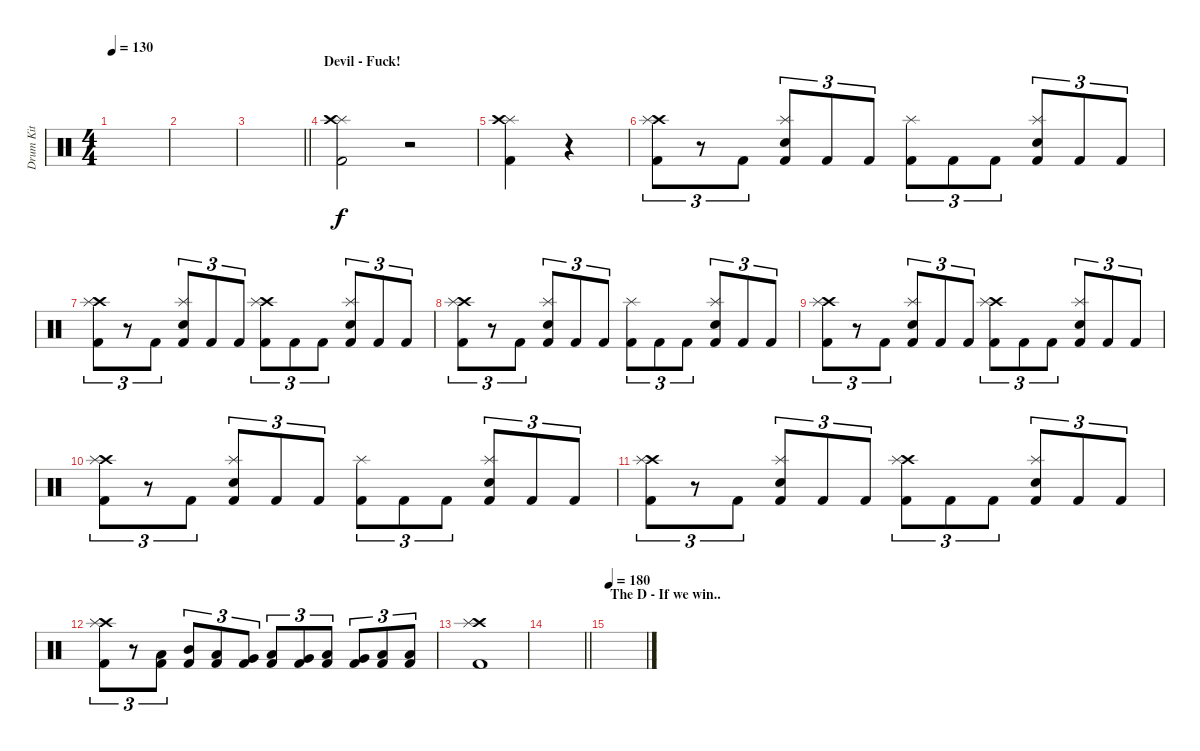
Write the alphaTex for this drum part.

\track ("Drum Kit" "Drum Kit") {instrument percussion}
\staff {score}
\articulation defaults
\ts (4 4)
\tempo 130
\clef neutral
\ks c
|
|
\barLineRight lightlight
|
\section ("" "Devil - Fuck!")
("Kick (hit) 2" "Splash (hit)" "Crash high (hit)").2 r.2 |
("Kick (hit) 2" "Splash (hit)" "Crash high (hit)").4 r.4 |
("Kick (hit) 2" "Crash high (hit)" "Splash (hit)").8{tu (3 2)} r.8{tu (3 2)} "Kick (hit) 2".8{tu (3 2)} ("Kick (hit) 2" "Electric Snare (hit)" "Splash (hit)").8{tu (3 2)} "Kick (hit) 2".8{tu (3 2)} "Kick (hit) 2".8{tu (3 2)} ("Kick (hit) 2" "Splash (hit)").8{tu (3 2)} "Kick (hit) 2".8{tu (3 2)} "Kick (hit) 2".8{tu (3 2)} ("Kick (hit) 2" "Electric Snare (hit)" "Splash (hit)").8{tu (3 2)} "Kick (hit) 2".8{tu (3 2)} "Kick (hit) 2".8{tu (3 2)} |
("Kick (hit) 2" "Crash high (hit)" "Splash (hit)").8{tu (3 2)} r.8{tu (3 2)} "Kick (hit) 2".8{tu (3 2)} ("Kick (hit) 2" "Electric Snare (hit)" "Splash (hit)").8{tu (3 2)} "Kick (hit) 2".8{tu (3 2)} "Kick (hit) 2".8{tu (3 2)} ("Kick (hit) 2" "Crash high (hit)" "Splash (hit)").8{tu (3 2)} "Kick (hit) 2".8{tu (3 2)} "Kick (hit) 2".8{tu (3 2)} ("Kick (hit) 2" "Electric Snare (hit)" "Splash (hit)").8{tu (3 2)} "Kick (hit) 2".8{tu (3 2)} "Kick (hit) 2".8{tu (3 2)} |
("Kick (hit) 2" "Crash high (hit)" "Splash (hit)").8{tu (3 2)} r.8{tu (3 2)} "Kick (hit) 2".8{tu (3 2)} ("Kick (hit) 2" "Electric Snare (hit)" "Splash (hit)").8{tu (3 2)} "Kick (hit) 2".8{tu (3 2)} "Kick (hit) 2".8{tu (3 2)} ("Kick (hit) 2" "Splash (hit)").8{tu (3 2)} "Kick (hit) 2".8{tu (3 2)} "Kick (hit) 2".8{tu (3 2)} ("Kick (hit) 2" "Electric Snare (hit)" "Splash (hit)").8{tu (3 2)} "Kick (hit) 2".8{tu (3 2)} "Kick (hit) 2".8{tu (3 2)} |
("Kick (hit) 2" "Crash high (hit)" "Splash (hit)").8{tu (3 2)} r.8{tu (3 2)} "Kick (hit) 2".8{tu (3 2)} ("Kick (hit) 2" "Electric Snare (hit)" "Splash (hit)").8{tu (3 2)} "Kick (hit) 2".8{tu (3 2)} "Kick (hit) 2".8{tu (3 2)} ("Kick (hit) 2" "Crash high (hit)" "Splash (hit)").8{tu (3 2)} "Kick (hit) 2".8{tu (3 2)} "Kick (hit) 2".8{tu (3 2)} ("Kick (hit) 2" "Electric Snare (hit)" "Splash (hit)").8{tu (3 2)} "Kick (hit) 2".8{tu (3 2)} "Kick (hit) 2".8{tu (3 2)} |
("Kick (hit) 2" "Crash high (hit)" "Splash (hit)").8{tu (3 2)} r.8{tu (3 2)} "Kick (hit) 2".8{tu (3 2)} ("Kick (hit) 2" "Electric Snare (hit)" "Splash (hit)").8{tu (3 2)} "Kick (hit) 2".8{tu (3 2)} "Kick (hit) 2".8{tu (3 2)} ("Kick (hit) 2" "Splash (hit)").8{tu (3 2)} "Kick (hit) 2".8{tu (3 2)} "Kick (hit) 2".8{tu (3 2)} ("Kick (hit) 2" "Electric Snare (hit)" "Splash (hit)").8{tu (3 2)} "Kick (hit) 2".8{tu (3 2)} "Kick (hit) 2".8{tu (3 2)} |
("Kick (hit) 2" "Crash high (hit)" "Splash (hit)").8{tu (3 2)} r.8{tu (3 2)} "Kick (hit) 2".8{tu (3 2)} ("Kick (hit) 2" "Electric Snare (hit)" "Splash (hit)").8{tu (3 2)} "Kick (hit) 2".8{tu (3 2)} "Kick (hit) 2".8{tu (3 2)} ("Kick (hit) 2" "Crash high (hit)" "Splash (hit)").8{tu (3 2)} "Kick (hit) 2".8{tu (3 2)} "Kick (hit) 2".8{tu (3 2)} ("Kick (hit) 2" "Electric Snare (hit)" "Splash (hit)").8{tu (3 2)} "Kick (hit) 2".8{tu (3 2)} "Kick (hit) 2".8{tu (3 2)} |
("Kick (hit) 2" "Crash high (hit)" "Splash (hit)").8{tu (3 2)} r.8{tu (3 2)} ("Kick (hit) 2" "Low Tom (hit)").8{tu (3 2)} ("Kick (hit) 2" "Mid Tom (hit)").8{tu (3 2)} ("Kick (hit) 2" "Low Tom (hit)").8{tu (3 2)} ("Kick (hit) 2" "Very Low Tom (hit)").8{tu (3 2)} ("Kick (hit) 2" "Low Tom (hit)").8{tu (3 2)} ("Kick (hit) 2" "Very Low Tom (hit)").8{tu (3 2)} ("Kick (hit) 2" "Low Floor Tom (hit)").8{tu (3 2)} ("Kick (hit) 2" "Very Low Tom (hit)").8{tu (3 2)} ("Kick (hit) 2" "Low Floor Tom (hit)").8{tu (3 2)} ("Kick (hit) 2" "Low Floor Tom (hit)").8{tu (3 2)} |
("Kick (hit) 2" "Crash high (hit)" "Splash (hit)").1 |
\barLineRight lightlight
|
\section ("" "The D - If we win..")
\tempo 180
